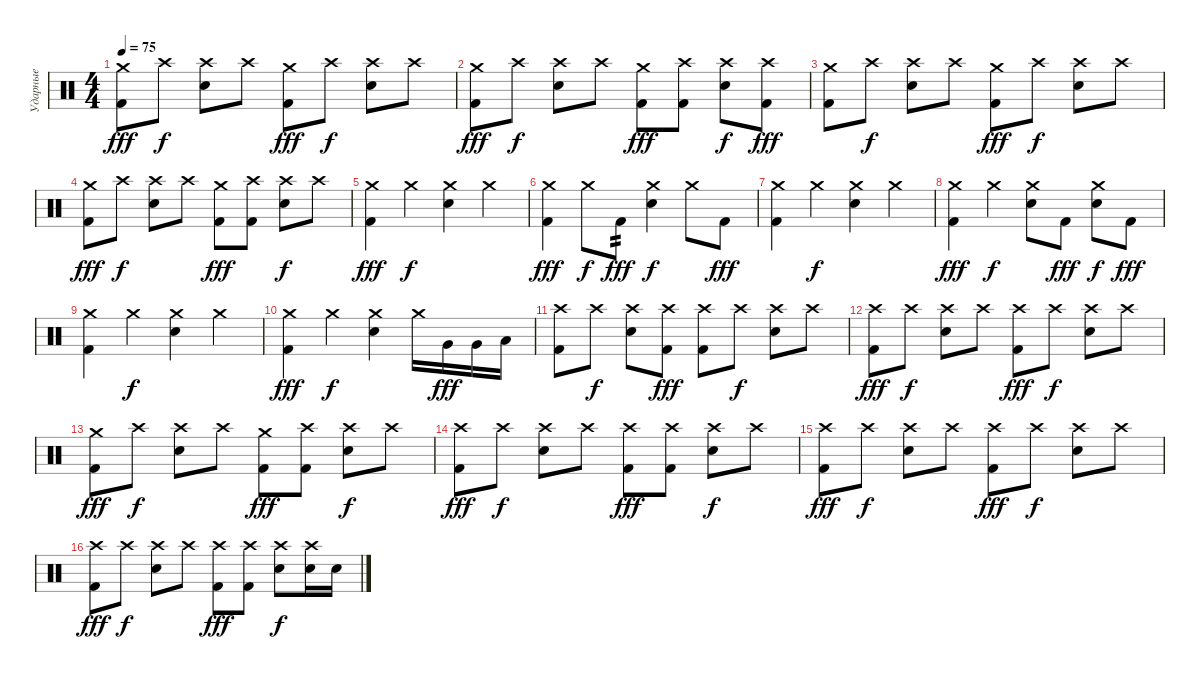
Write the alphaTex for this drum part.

\track ("Ударные" "Ударные") {instrument percussion}
\staff {score}
\articulation defaults
\ts (4 4)
\tempo 75
\clef neutral
\ks c
("Crash medium (hit)" "Kick (hit) 2").8{dy fff} "Crash high (hit)".8{dy f} ("Crash high (hit)" "Electric Snare (hit)").8 "Crash high (hit)".8 ("Crash medium (hit)" "Kick (hit) 2").8{dy fff} "Crash high (hit)".8{dy f} ("Crash high (hit)" "Electric Snare (hit)").8 "Crash high (hit)".8 |
("Crash medium (hit)" "Kick (hit) 2").8{dy fff} "Crash high (hit)".8{dy f} ("Crash high (hit)" "Electric Snare (hit)").8 "Crash high (hit)".8 ("Crash medium (hit)" "Kick (hit) 2").8{dy fff} ("Crash high (hit)" "Kick (hit) 2").8 ("Crash high (hit)" "Electric Snare (hit)").8{dy f} ("Crash high (hit)" "Kick (hit) 2").8{dy fff} |
("Crash medium (hit)" "Kick (hit) 2").8 "Crash high (hit)".8{dy f} ("Crash high (hit)" "Electric Snare (hit)").8 "Crash high (hit)".8 ("Crash medium (hit)" "Kick (hit) 2").8{dy fff} "Crash high (hit)".8{dy f} ("Crash high (hit)" "Electric Snare (hit)").8 "Crash high (hit)".8 |
("Crash medium (hit)" "Kick (hit) 2").8{dy fff} "Crash high (hit)".8{dy f} ("Crash high (hit)" "Electric Snare (hit)").8 "Crash high (hit)".8 ("Crash medium (hit)" "Kick (hit) 2").8{dy fff} ("Crash high (hit)" "Kick (hit) 2").8 ("Crash high (hit)" "Electric Snare (hit)").8{dy f} "Crash high (hit)".8 |
("Crash medium (hit)" "Kick (hit) 2").4{dy fff} "Crash medium (hit)".4{dy f} ("Crash medium (hit)" "Electric Snare (hit)").4 "Crash medium (hit)".4 |
("Crash medium (hit)" "Kick (hit) 2").4{dy fff} "Crash medium (hit)".8{dy f} "Kick (hit) 2".8{tp 2 dy fff} ("Crash medium (hit)" "Electric Snare (hit)").4{dy f} "Crash medium (hit)".8 "Kick (hit) 2".8{dy fff} |
("Crash medium (hit)" "Kick (hit) 2").4 "Crash medium (hit)".4{dy f} ("Crash medium (hit)" "Electric Snare (hit)").4 "Crash medium (hit)".4 |
("Crash medium (hit)" "Kick (hit) 2").4{dy fff} "Crash medium (hit)".4{dy f} ("Crash medium (hit)" "Electric Snare (hit)").8 "Kick (hit) 2".8{dy fff} ("Crash medium (hit)" "Electric Snare (hit)").8{dy f} "Kick (hit) 2".8{dy fff} |
("Crash medium (hit)" "Kick (hit) 2").4 "Crash medium (hit)".4{dy f} ("Crash medium (hit)" "Electric Snare (hit)").4 "Crash medium (hit)".4 |
("Crash medium (hit)" "Kick (hit) 2").4{dy fff} "Crash medium (hit)".4{dy f} ("Crash medium (hit)" "Electric Snare (hit)").4 "Crash medium (hit)".16 "Very Low Tom (hit)".16{dy fff} "Very Low Tom (hit)".16 "Low Floor Tom (hit)".16 |
("Crash high (hit)" "Kick (hit) 2").8 "Crash high (hit)".8{dy f} ("Crash high (hit)" "Electric Snare (hit)").8 ("Crash high (hit)" "Kick (hit) 2").8{dy fff} ("Crash high (hit)" "Kick (hit) 2").8 "Crash high (hit)".8{dy f} ("Crash high (hit)" "Electric Snare (hit)").8 "Crash high (hit)".8 |
("Crash high (hit)" "Kick (hit) 2").8{dy fff} "Crash high (hit)".8{dy f} ("Crash high (hit)" "Electric Snare (hit)").8 "Crash high (hit)".8 ("Crash high (hit)" "Kick (hit) 2").8{dy fff} "Crash high (hit)".8{dy f} ("Crash high (hit)" "Electric Snare (hit)").8 "Crash high (hit)".8 |
("Crash medium (hit)" "Kick (hit) 2").8{dy fff} "Crash high (hit)".8{dy f} ("Crash high (hit)" "Electric Snare (hit)").8 "Crash high (hit)".8 ("Crash medium (hit)" "Kick (hit) 2").8{dy fff} ("Crash high (hit)" "Kick (hit) 2").8 ("Crash high (hit)" "Electric Snare (hit)").8{dy f} "Crash high (hit)".8 |
("Crash high (hit)" "Kick (hit) 2").8{dy fff} "Crash high (hit)".8{dy f} ("Crash high (hit)" "Electric Snare (hit)").8 "Crash high (hit)".8 ("Crash high (hit)" "Kick (hit) 2").8{dy fff} ("Crash high (hit)" "Kick (hit) 2").8 ("Crash high (hit)" "Electric Snare (hit)").8{dy f} "Crash high (hit)".8 |
("Crash high (hit)" "Kick (hit) 2").8{dy fff} "Crash high (hit)".8{dy f} ("Crash high (hit)" "Electric Snare (hit)").8 "Crash high (hit)".8 ("Crash high (hit)" "Kick (hit) 2").8{dy fff} "Crash high (hit)".8{dy f} ("Crash high (hit)" "Electric Snare (hit)").8 "Crash high (hit)".8 |
("Crash high (hit)" "Kick (hit) 2").8{dy fff} "Crash high (hit)".8{dy f} ("Crash high (hit)" "Electric Snare (hit)").8 "Crash high (hit)".8 ("Crash high (hit)" "Kick (hit) 2").8{dy fff} ("Crash high (hit)" "Kick (hit) 2").8 ("Crash high (hit)" "Electric Snare (hit)").8{dy f} ("Crash high (hit)" "Electric Snare (hit)").16 "Electric Snare (hit)".16
